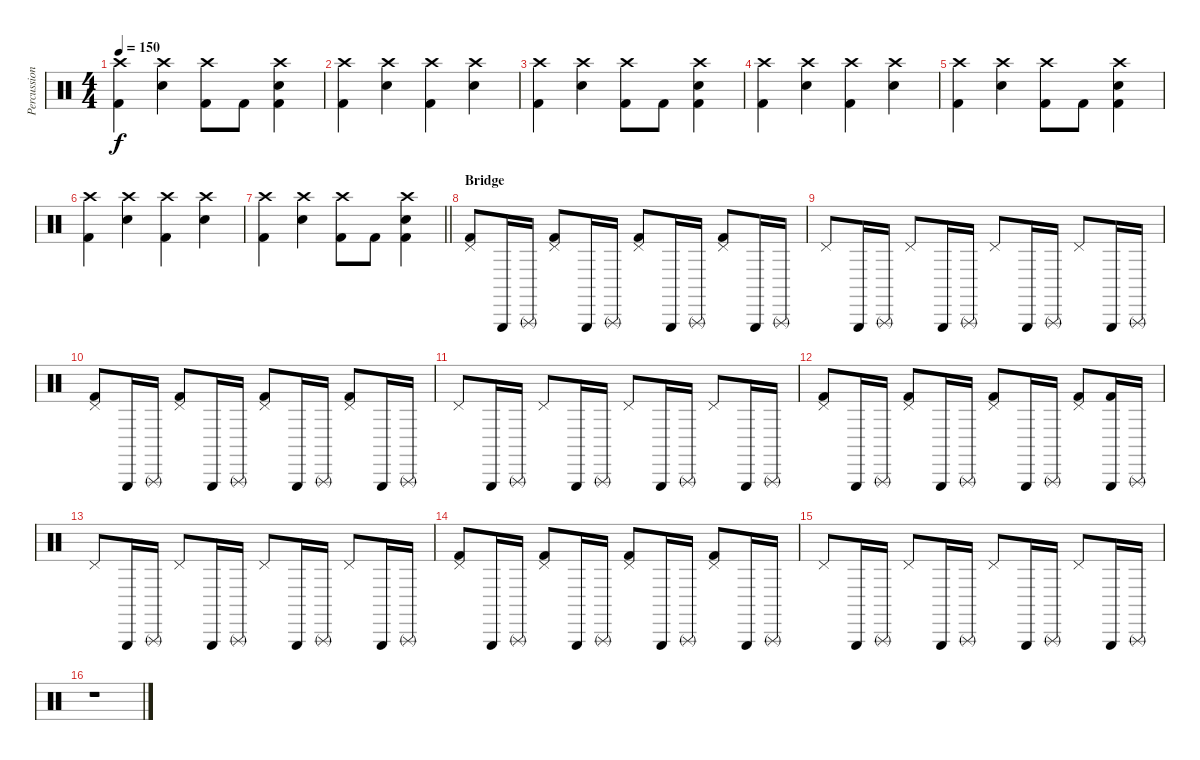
\track ("Percussion" "Percussion") {instrument percussion}
\staff {score}
\articulation defaults
\ts (4 4)
\tempo 150
\clef neutral
\ks c
("Crash high (hit)" "Kick (hit) 2").4{dy f} ("Crash high (hit)" "Snare (hit) 2").4 ("Crash high (hit)" "Kick (hit) 2").8 "Kick (hit) 2".8 ("Crash high (hit)" "Snare (hit) 2" "Kick (hit) 2").4 |
("Crash high (hit)" "Kick (hit) 2").4 ("Crash high (hit)" "Snare (hit) 2").4 ("Crash high (hit)" "Kick (hit) 2").4 ("Crash high (hit)" "Snare (hit) 2").4 |
("Crash high (hit)" "Kick (hit) 2").4 ("Crash high (hit)" "Snare (hit) 2").4 ("Crash high (hit)" "Kick (hit) 2").8 "Kick (hit) 2".8 ("Crash high (hit)" "Snare (hit) 2" "Kick (hit) 2").4 |
("Crash high (hit)" "Kick (hit) 2").4 ("Crash high (hit)" "Snare (hit) 2").4 ("Crash high (hit)" "Kick (hit) 2").4 ("Crash high (hit)" "Snare (hit) 2").4 |
("Crash high (hit)" "Kick (hit) 2").4 ("Crash high (hit)" "Snare (hit) 2").4 ("Crash high (hit)" "Kick (hit) 2").8 "Kick (hit) 2".8 ("Crash high (hit)" "Snare (hit) 2" "Kick (hit) 2").4 |
("Crash high (hit)" "Kick (hit) 2").4 ("Crash high (hit)" "Snare (hit) 2").4 ("Crash high (hit)" "Kick (hit) 2").4 ("Crash high (hit)" "Snare (hit) 2").4 |
\barLineRight lightlight
("Crash high (hit)" "Kick (hit) 2").4 ("Crash high (hit)" "Snare (hit) 2").4 ("Crash high (hit)" "Kick (hit) 2").8 "Kick (hit) 2".8 ("Crash high (hit)" "Snare (hit) 2" "Kick (hit) 2").4 |
\section ("" "Bridge")
("Pedal Hi-Hat (hit)" "Kick (hit) 2").8 "Triangle (hit)".16 "Triangle (rnute)".16 ("Pedal Hi-Hat (hit)" "Kick (hit) 2").8 "Triangle (hit)".16 "Triangle (rnute)".16 ("Pedal Hi-Hat (hit)" "Kick (hit) 2").8 "Triangle (hit)".16 "Triangle (rnute)".16 ("Pedal Hi-Hat (hit)" "Kick (hit) 2").8 "Triangle (hit)".16 "Triangle (rnute)".16 |
"Pedal Hi-Hat (hit)".8 "Triangle (hit)".16 "Triangle (rnute)".16 "Pedal Hi-Hat (hit)".8 "Triangle (hit)".16 "Triangle (rnute)".16 "Pedal Hi-Hat (hit)".8 "Triangle (hit)".16 "Triangle (rnute)".16 "Pedal Hi-Hat (hit)".8 "Triangle (hit)".16 "Triangle (rnute)".16 |
("Pedal Hi-Hat (hit)" "Kick (hit) 2").8 "Triangle (hit)".16 "Triangle (rnute)".16 ("Pedal Hi-Hat (hit)" "Kick (hit) 2").8 "Triangle (hit)".16 "Triangle (rnute)".16 ("Pedal Hi-Hat (hit)" "Kick (hit) 2").8 "Triangle (hit)".16 "Triangle (rnute)".16 ("Pedal Hi-Hat (hit)" "Kick (hit) 2").8 "Triangle (hit)".16 "Triangle (rnute)".16 |
"Pedal Hi-Hat (hit)".8 "Triangle (hit)".16 "Triangle (rnute)".16 "Pedal Hi-Hat (hit)".8 "Triangle (hit)".16 "Triangle (rnute)".16 "Pedal Hi-Hat (hit)".8 "Triangle (hit)".16 "Triangle (rnute)".16 "Pedal Hi-Hat (hit)".8 "Triangle (hit)".16 "Triangle (rnute)".16 |
("Pedal Hi-Hat (hit)" "Kick (hit) 2").8 "Triangle (hit)".16 "Triangle (rnute)".16 ("Pedal Hi-Hat (hit)" "Kick (hit) 2").8 "Triangle (hit)".16 "Triangle (rnute)".16 ("Pedal Hi-Hat (hit)" "Kick (hit) 2").8 "Triangle (hit)".16 "Triangle (rnute)".16 ("Pedal Hi-Hat (hit)" "Kick (hit) 2").8 ("Triangle (hit)" "Kick (hit) 2").16 "Triangle (rnute)".16 |
"Pedal Hi-Hat (hit)".8 "Triangle (hit)".16 "Triangle (rnute)".16 "Pedal Hi-Hat (hit)".8 "Triangle (hit)".16 "Triangle (rnute)".16 "Pedal Hi-Hat (hit)".8 "Triangle (hit)".16 "Triangle (rnute)".16 "Pedal Hi-Hat (hit)".8 "Triangle (hit)".16 "Triangle (rnute)".16 |
("Pedal Hi-Hat (hit)" "Kick (hit) 2").8 "Triangle (hit)".16 "Triangle (rnute)".16 ("Pedal Hi-Hat (hit)" "Kick (hit) 2").8 "Triangle (hit)".16 "Triangle (rnute)".16 ("Pedal Hi-Hat (hit)" "Kick (hit) 2").8 "Triangle (hit)".16 "Triangle (rnute)".16 ("Pedal Hi-Hat (hit)" "Kick (hit) 2").8 "Triangle (hit)".16 "Triangle (rnute)".16 |
"Pedal Hi-Hat (hit)".8 "Triangle (hit)".16 "Triangle (rnute)".16 "Pedal Hi-Hat (hit)".8 "Triangle (hit)".16 "Triangle (rnute)".16 "Pedal Hi-Hat (hit)".8 "Triangle (hit)".16 "Triangle (rnute)".16 "Pedal Hi-Hat (hit)".8 "Triangle (hit)".16 "Triangle (rnute)".16 |
r.1
